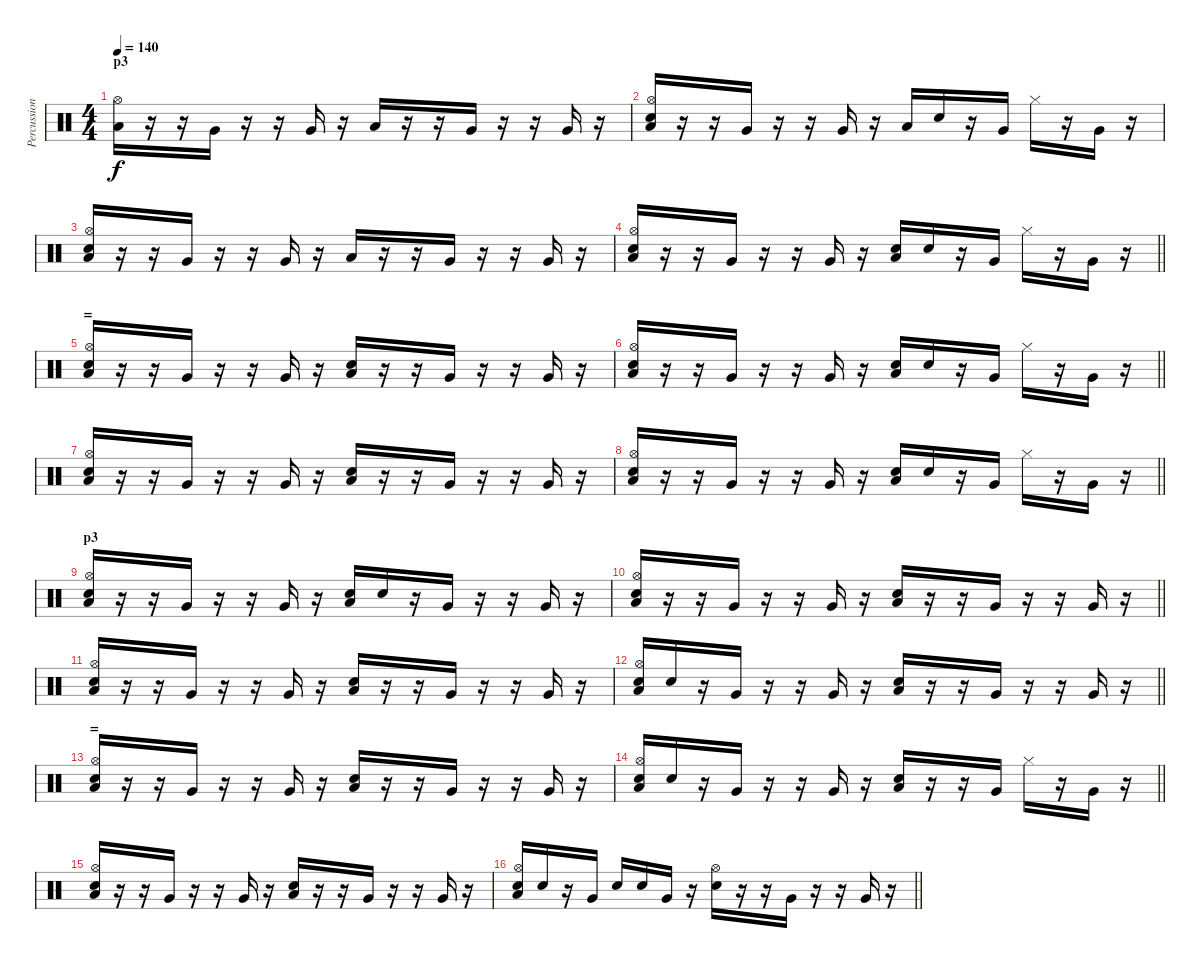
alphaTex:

\track ("Percussion" "Percussion") {instrument percussion}
\staff {score}
\articulation defaults
\ts (4 4)
\section ("" "p3")
\tempo 140
\clef neutral
\ks c
("Low Floor Tom (hit)" "Hi-Hat (open)").16{dy f} r.16 r.16 "Very Low Tom (hit)".16 r.16 r.16 "Very Low Tom (hit)".16 r.16 "Low Floor Tom (hit)".16 r.16 r.16 "Very Low Tom (hit)".16 r.16 r.16 "Very Low Tom (hit)".16 r.16 |
("Low Floor Tom (hit)" "Electric Snare (hit)" "Hi-Hat (open)").16 r.16 r.16 "Very Low Tom (hit)".16 r.16 r.16 "Very Low Tom (hit)".16 r.16 "Low Floor Tom (hit)".16 "Electric Snare (hit)".16 r.16 "Very Low Tom (hit)".16 "Hi-Hat (closed)".16 r.16 "Very Low Tom (hit)".16 r.16 |
("Low Floor Tom (hit)" "Electric Snare (hit)" "Hi-Hat (open)").16 r.16 r.16 "Very Low Tom (hit)".16 r.16 r.16 "Very Low Tom (hit)".16 r.16 "Low Floor Tom (hit)".16 r.16 r.16 "Very Low Tom (hit)".16 r.16 r.16 "Very Low Tom (hit)".16 r.16 |
\barLineRight lightlight
("Low Floor Tom (hit)" "Electric Snare (hit)" "Hi-Hat (open)").16 r.16 r.16 "Very Low Tom (hit)".16 r.16 r.16 "Very Low Tom (hit)".16 r.16 ("Low Floor Tom (hit)" "Electric Snare (hit)").16 "Electric Snare (hit)".16 r.16 "Very Low Tom (hit)".16 "Hi-Hat (closed)".16 r.16 "Very Low Tom (hit)".16 r.16 |
\section ("" "=")
("Low Floor Tom (hit)" "Electric Snare (hit)" "Hi-Hat (open)").16 r.16 r.16 "Very Low Tom (hit)".16 r.16 r.16 "Very Low Tom (hit)".16 r.16 ("Low Floor Tom (hit)" "Electric Snare (hit)").16 r.16 r.16 "Very Low Tom (hit)".16 r.16 r.16 "Very Low Tom (hit)".16 r.16 |
\barLineRight lightlight
("Low Floor Tom (hit)" "Electric Snare (hit)" "Hi-Hat (open)").16 r.16 r.16 "Very Low Tom (hit)".16 r.16 r.16 "Very Low Tom (hit)".16 r.16 ("Low Floor Tom (hit)" "Electric Snare (hit)").16 "Electric Snare (hit)".16 r.16 "Very Low Tom (hit)".16 "Hi-Hat (closed)".16 r.16 "Very Low Tom (hit)".16 r.16 |
("Low Floor Tom (hit)" "Electric Snare (hit)" "Hi-Hat (open)").16 r.16 r.16 "Very Low Tom (hit)".16 r.16 r.16 "Very Low Tom (hit)".16 r.16 ("Low Floor Tom (hit)" "Electric Snare (hit)").16 r.16 r.16 "Very Low Tom (hit)".16 r.16 r.16 "Very Low Tom (hit)".16 r.16 |
\barLineRight lightlight
("Low Floor Tom (hit)" "Electric Snare (hit)" "Hi-Hat (open)").16 r.16 r.16 "Very Low Tom (hit)".16 r.16 r.16 "Very Low Tom (hit)".16 r.16 ("Low Floor Tom (hit)" "Electric Snare (hit)").16 "Electric Snare (hit)".16 r.16 "Very Low Tom (hit)".16 "Hi-Hat (closed)".16 r.16 "Very Low Tom (hit)".16 r.16 |
\section ("" "p3")
("Low Floor Tom (hit)" "Electric Snare (hit)" "Hi-Hat (open)").16 r.16 r.16 "Very Low Tom (hit)".16 r.16 r.16 "Very Low Tom (hit)".16 r.16 ("Low Floor Tom (hit)" "Electric Snare (hit)").16 "Electric Snare (hit)".16 r.16 "Very Low Tom (hit)".16 r.16 r.16 "Very Low Tom (hit)".16 r.16 |
\barLineRight lightlight
("Low Floor Tom (hit)" "Electric Snare (hit)" "Hi-Hat (open)").16 r.16 r.16 "Very Low Tom (hit)".16 r.16 r.16 "Very Low Tom (hit)".16 r.16 ("Low Floor Tom (hit)" "Electric Snare (hit)").16 r.16 r.16 "Very Low Tom (hit)".16 r.16 r.16 "Very Low Tom (hit)".16 r.16 |
("Low Floor Tom (hit)" "Electric Snare (hit)" "Hi-Hat (open)").16 r.16 r.16 "Very Low Tom (hit)".16 r.16 r.16 "Very Low Tom (hit)".16 r.16 ("Low Floor Tom (hit)" "Electric Snare (hit)").16 r.16 r.16 "Very Low Tom (hit)".16 r.16 r.16 "Very Low Tom (hit)".16 r.16 |
\barLineRight lightlight
("Low Floor Tom (hit)" "Electric Snare (hit)" "Hi-Hat (open)").16 "Electric Snare (hit)".16 r.16 "Very Low Tom (hit)".16 r.16 r.16 "Very Low Tom (hit)".16 r.16 ("Low Floor Tom (hit)" "Electric Snare (hit)").16 r.16 r.16 "Very Low Tom (hit)".16 r.16 r.16 "Very Low Tom (hit)".16 r.16 |
\section ("" "=")
("Low Floor Tom (hit)" "Electric Snare (hit)" "Hi-Hat (open)").16 r.16 r.16 "Very Low Tom (hit)".16 r.16 r.16 "Very Low Tom (hit)".16 r.16 ("Low Floor Tom (hit)" "Electric Snare (hit)").16 r.16 r.16 "Very Low Tom (hit)".16 r.16 r.16 "Very Low Tom (hit)".16 r.16 |
\barLineRight lightlight
("Low Floor Tom (hit)" "Electric Snare (hit)" "Hi-Hat (open)").16 "Electric Snare (hit)".16 r.16 "Very Low Tom (hit)".16 r.16 r.16 "Very Low Tom (hit)".16 r.16 ("Low Floor Tom (hit)" "Electric Snare (hit)").16 r.16 r.16 "Very Low Tom (hit)".16 "Hi-Hat (closed)".16 r.16 "Very Low Tom (hit)".16 r.16 |
("Low Floor Tom (hit)" "Electric Snare (hit)" "Hi-Hat (open)").16 r.16 r.16 "Very Low Tom (hit)".16 r.16 r.16 "Very Low Tom (hit)".16 r.16 ("Low Floor Tom (hit)" "Electric Snare (hit)").16 r.16 r.16 "Very Low Tom (hit)".16 r.16 r.16 "Very Low Tom (hit)".16 r.16 |
\barLineRight lightlight
("Low Floor Tom (hit)" "Electric Snare (hit)" "Hi-Hat (open)").16 "Electric Snare (hit)".16 r.16 "Very Low Tom (hit)".16 "Electric Snare (hit)".16 "Electric Snare (hit)".16 "Very Low Tom (hit)".16 r.16 ("Electric Snare (hit)" "Hi-Hat (open)").16 r.16 r.16 "Very Low Tom (hit)".16 r.16 r.16 "Very Low Tom (hit)".16 r.16
